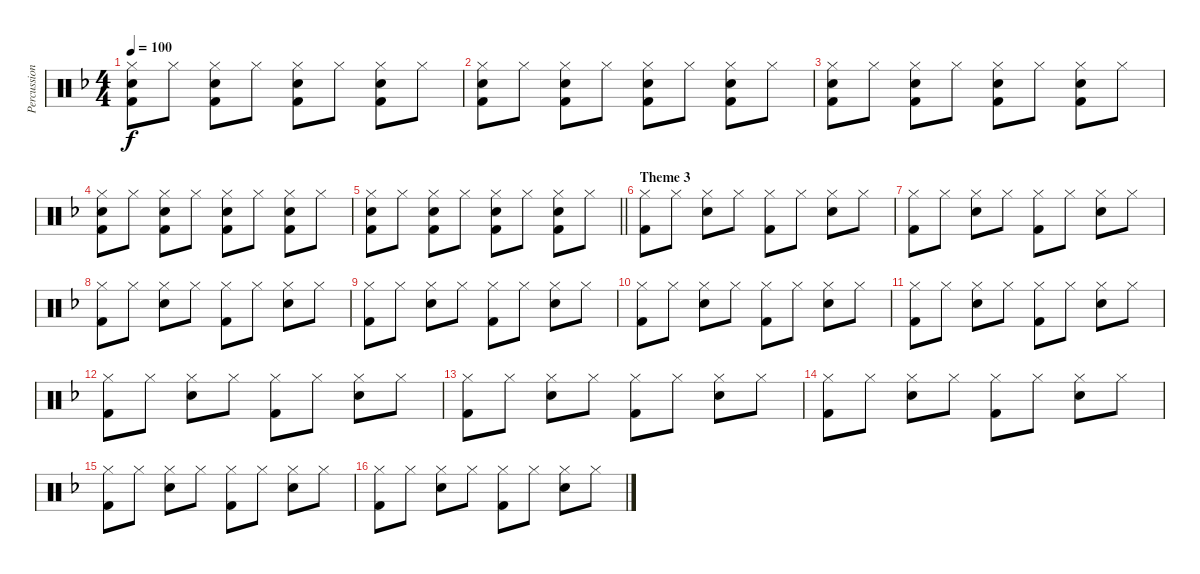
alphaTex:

\track ("Percussion" "Percussion") {instrument percussion}
\staff {score}
\articulation defaults
\ts (4 4)
\tempo 100
\clef neutral
\ks f
("Hi-Hat (closed)" "Snare (hit) 2" "Kick (hit) 2").8{dy f} "Hi-Hat (closed)".8 ("Hi-Hat (closed)" "Snare (hit) 2" "Kick (hit) 2").8 "Hi-Hat (closed)".8 ("Hi-Hat (closed)" "Snare (hit) 2" "Kick (hit) 2").8 "Hi-Hat (closed)".8 ("Hi-Hat (closed)" "Snare (hit) 2" "Kick (hit) 2").8 "Hi-Hat (closed)".8 |
("Hi-Hat (closed)" "Snare (hit) 2" "Kick (hit) 2").8 "Hi-Hat (closed)".8 ("Hi-Hat (closed)" "Snare (hit) 2" "Kick (hit) 2").8 "Hi-Hat (closed)".8 ("Hi-Hat (closed)" "Snare (hit) 2" "Kick (hit) 2").8 "Hi-Hat (closed)".8 ("Hi-Hat (closed)" "Snare (hit) 2" "Kick (hit) 2").8 "Hi-Hat (closed)".8 |
("Hi-Hat (closed)" "Snare (hit) 2" "Kick (hit) 2").8 "Hi-Hat (closed)".8 ("Hi-Hat (closed)" "Snare (hit) 2" "Kick (hit) 2").8 "Hi-Hat (closed)".8 ("Hi-Hat (closed)" "Snare (hit) 2" "Kick (hit) 2").8 "Hi-Hat (closed)".8 ("Hi-Hat (closed)" "Snare (hit) 2" "Kick (hit) 2").8 "Hi-Hat (closed)".8 |
("Hi-Hat (closed)" "Snare (hit) 2" "Kick (hit) 2").8 "Hi-Hat (closed)".8 ("Hi-Hat (closed)" "Snare (hit) 2" "Kick (hit) 2").8 "Hi-Hat (closed)".8 ("Hi-Hat (closed)" "Snare (hit) 2" "Kick (hit) 2").8 "Hi-Hat (closed)".8 ("Hi-Hat (closed)" "Snare (hit) 2" "Kick (hit) 2").8 "Hi-Hat (closed)".8 |
\barLineRight lightlight
("Hi-Hat (closed)" "Snare (hit) 2" "Kick (hit) 2").8 "Hi-Hat (closed)".8 ("Hi-Hat (closed)" "Snare (hit) 2" "Kick (hit) 2").8 "Hi-Hat (closed)".8 ("Hi-Hat (closed)" "Snare (hit) 2" "Kick (hit) 2").8 "Hi-Hat (closed)".8 ("Hi-Hat (closed)" "Snare (hit) 2" "Kick (hit) 2").8 "Hi-Hat (closed)".8 |
\section ("" "Theme 3")
("Kick (hit) 2" "Hi-Hat (closed)").8 "Hi-Hat (closed)".8 ("Hi-Hat (closed)" "Snare (hit) 2").8 "Hi-Hat (closed)".8 ("Kick (hit) 2" "Hi-Hat (closed)").8 "Hi-Hat (closed)".8 ("Hi-Hat (closed)" "Snare (hit) 2").8 "Hi-Hat (closed)".8 |
("Kick (hit) 2" "Hi-Hat (closed)").8 "Hi-Hat (closed)".8 ("Hi-Hat (closed)" "Snare (hit) 2").8 "Hi-Hat (closed)".8 ("Kick (hit) 2" "Hi-Hat (closed)").8 "Hi-Hat (closed)".8 ("Hi-Hat (closed)" "Snare (hit) 2").8 "Hi-Hat (closed)".8 |
("Kick (hit) 2" "Hi-Hat (closed)").8 "Hi-Hat (closed)".8 ("Hi-Hat (closed)" "Snare (hit) 2").8 "Hi-Hat (closed)".8 ("Kick (hit) 2" "Hi-Hat (closed)").8 "Hi-Hat (closed)".8 ("Hi-Hat (closed)" "Snare (hit) 2").8 "Hi-Hat (closed)".8 |
("Kick (hit) 2" "Hi-Hat (closed)").8 "Hi-Hat (closed)".8 ("Hi-Hat (closed)" "Snare (hit) 2").8 "Hi-Hat (closed)".8 ("Kick (hit) 2" "Hi-Hat (closed)").8 "Hi-Hat (closed)".8 ("Hi-Hat (closed)" "Snare (hit) 2").8 "Hi-Hat (closed)".8 |
("Kick (hit) 2" "Hi-Hat (closed)").8 "Hi-Hat (closed)".8 ("Hi-Hat (closed)" "Snare (hit) 2").8 "Hi-Hat (closed)".8 ("Kick (hit) 2" "Hi-Hat (closed)").8 "Hi-Hat (closed)".8 ("Hi-Hat (closed)" "Snare (hit) 2").8 "Hi-Hat (closed)".8 |
("Kick (hit) 2" "Hi-Hat (closed)").8 "Hi-Hat (closed)".8 ("Hi-Hat (closed)" "Snare (hit) 2").8 "Hi-Hat (closed)".8 ("Kick (hit) 2" "Hi-Hat (closed)").8 "Hi-Hat (closed)".8 ("Hi-Hat (closed)" "Snare (hit) 2").8 "Hi-Hat (closed)".8 |
("Kick (hit) 2" "Hi-Hat (closed)").8 "Hi-Hat (closed)".8 ("Hi-Hat (closed)" "Snare (hit) 2").8 "Hi-Hat (closed)".8 ("Kick (hit) 2" "Hi-Hat (closed)").8 "Hi-Hat (closed)".8 ("Hi-Hat (closed)" "Snare (hit) 2").8 "Hi-Hat (closed)".8 |
("Kick (hit) 2" "Hi-Hat (closed)").8 "Hi-Hat (closed)".8 ("Hi-Hat (closed)" "Snare (hit) 2").8 "Hi-Hat (closed)".8 ("Kick (hit) 2" "Hi-Hat (closed)").8 "Hi-Hat (closed)".8 ("Hi-Hat (closed)" "Snare (hit) 2").8 "Hi-Hat (closed)".8 |
("Kick (hit) 2" "Hi-Hat (closed)").8 "Hi-Hat (closed)".8 ("Hi-Hat (closed)" "Snare (hit) 2").8 "Hi-Hat (closed)".8 ("Kick (hit) 2" "Hi-Hat (closed)").8 "Hi-Hat (closed)".8 ("Hi-Hat (closed)" "Snare (hit) 2").8 "Hi-Hat (closed)".8 |
("Kick (hit) 2" "Hi-Hat (closed)").8 "Hi-Hat (closed)".8 ("Hi-Hat (closed)" "Snare (hit) 2").8 "Hi-Hat (closed)".8 ("Kick (hit) 2" "Hi-Hat (closed)").8 "Hi-Hat (closed)".8 ("Hi-Hat (closed)" "Snare (hit) 2").8 "Hi-Hat (closed)".8 |
("Kick (hit) 2" "Hi-Hat (closed)").8 "Hi-Hat (closed)".8 ("Hi-Hat (closed)" "Snare (hit) 2").8 "Hi-Hat (closed)".8 ("Kick (hit) 2" "Hi-Hat (closed)").8 "Hi-Hat (closed)".8 ("Hi-Hat (closed)" "Snare (hit) 2").8 "Hi-Hat (closed)".8
